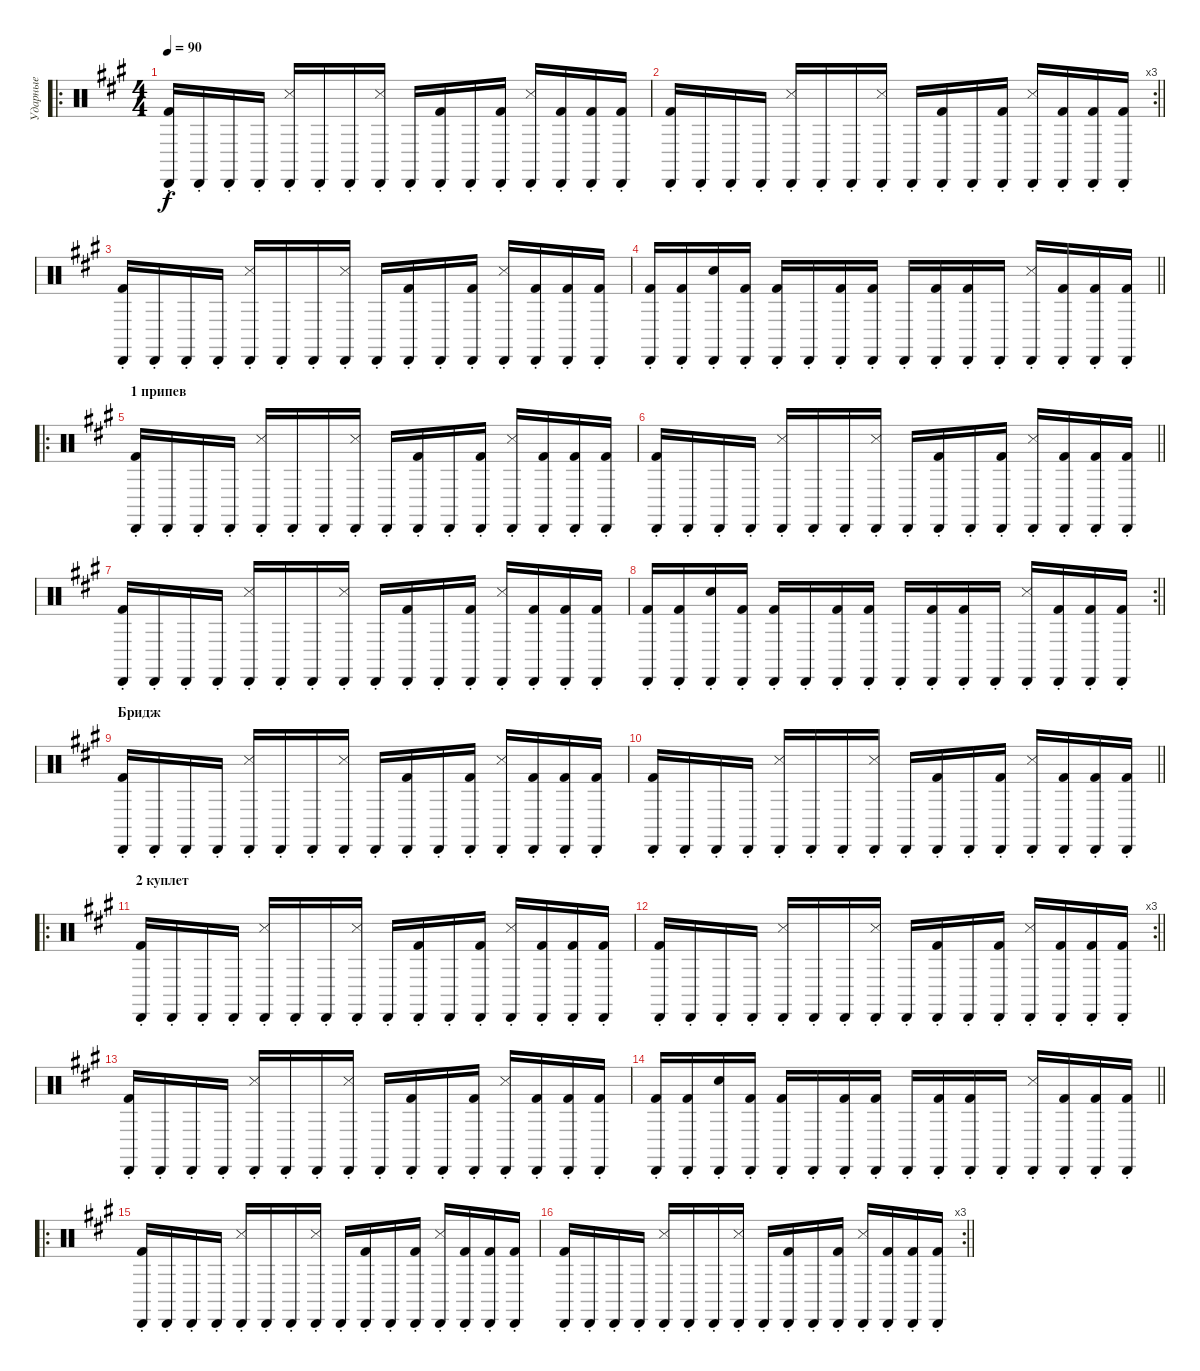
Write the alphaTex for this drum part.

\track ("Ударные" "Ударные") {instrument percussion}
\staff {score}
\articulation defaults
\ro
\ts (4 4)
\tempo 90
\clef neutral
\ks f#minor
("Cabasa (hit)"{st} "Kick (hit) 2").16{dy f} "Cabasa (hit)"{st}.16 "Cabasa (hit)"{st}.16 "Cabasa (hit)"{st}.16 ("Cabasa (hit)"{st} "Snare (side stick) 3").16 "Cabasa (hit)"{st}.16 "Cabasa (hit)"{st}.16 ("Cabasa (hit)"{st} "Snare (side stick) 3").16 "Cabasa (hit)"{st}.16 ("Cabasa (hit)"{st} "Kick (hit) 2").16 "Cabasa (hit)"{st}.16 ("Cabasa (hit)"{st} "Kick (hit) 2").16 ("Cabasa (hit)"{st} "Snare (side stick) 3").16 ("Cabasa (hit)"{st} "Kick (hit) 2").16 ("Cabasa (hit)"{st} "Kick (hit) 2").16 ("Cabasa (hit)"{st} "Kick (hit) 2").16 |
\rc 3
\barLineRight lightlight
("Cabasa (hit)"{st} "Kick (hit) 2").16 "Cabasa (hit)"{st}.16 "Cabasa (hit)"{st}.16 "Cabasa (hit)"{st}.16 ("Cabasa (hit)"{st} "Snare (side stick) 3").16 "Cabasa (hit)"{st}.16 "Cabasa (hit)"{st}.16 ("Cabasa (hit)"{st} "Snare (side stick) 3").16 "Cabasa (hit)"{st}.16 ("Cabasa (hit)"{st} "Kick (hit) 2").16 "Cabasa (hit)"{st}.16 ("Cabasa (hit)"{st} "Kick (hit) 2").16 ("Cabasa (hit)"{st} "Snare (side stick) 3").16 ("Cabasa (hit)"{st} "Kick (hit) 2").16 ("Cabasa (hit)"{st} "Kick (hit) 2").16 ("Cabasa (hit)"{st} "Kick (hit) 2").16 |
("Cabasa (hit)"{st} "Kick (hit) 2").16 "Cabasa (hit)"{st}.16 "Cabasa (hit)"{st}.16 "Cabasa (hit)"{st}.16 ("Cabasa (hit)"{st} "Snare (side stick) 3").16 "Cabasa (hit)"{st}.16 "Cabasa (hit)"{st}.16 ("Cabasa (hit)"{st} "Snare (side stick) 3").16 "Cabasa (hit)"{st}.16 ("Cabasa (hit)"{st} "Kick (hit) 2").16 "Cabasa (hit)"{st}.16 ("Cabasa (hit)"{st} "Kick (hit) 2").16 ("Cabasa (hit)"{st} "Snare (side stick) 3").16 ("Cabasa (hit)"{st} "Kick (hit) 2").16 ("Cabasa (hit)"{st} "Kick (hit) 2").16 ("Cabasa (hit)"{st} "Kick (hit) 2").16 |
\barLineRight lightlight
("Cabasa (hit)"{st} "Kick (hit) 2").16 ("Cabasa (hit)"{st} "Kick (hit) 2").16 ("Cabasa (hit)"{st} "Snare (hit) 2").16 ("Cabasa (hit)"{st} "Kick (hit) 2").16 ("Cabasa (hit)"{st} "Kick (hit) 2").16 "Cabasa (hit)"{st}.16 ("Cabasa (hit)"{st} "Kick (hit) 2").16 ("Cabasa (hit)"{st} "Kick (hit) 2").16 "Cabasa (hit)"{st}.16 ("Cabasa (hit)"{st} "Kick (hit) 2").16 ("Cabasa (hit)"{st} "Kick (hit) 2").16 "Cabasa (hit)"{st}.16 ("Cabasa (hit)"{st} "Snare (side stick) 3").16 ("Cabasa (hit)"{st} "Kick (hit) 2").16 ("Cabasa (hit)"{st} "Kick (hit) 2").16 ("Cabasa (hit)"{st} "Kick (hit) 2").16 |
\ro
\section ("" "1 припев")
("Cabasa (hit)"{st} "Kick (hit) 2").16 "Cabasa (hit)"{st}.16 "Cabasa (hit)"{st}.16 "Cabasa (hit)"{st}.16 ("Cabasa (hit)"{st} "Snare (side stick) 3").16 "Cabasa (hit)"{st}.16 "Cabasa (hit)"{st}.16 ("Cabasa (hit)"{st} "Snare (side stick) 3").16 "Cabasa (hit)"{st}.16 ("Cabasa (hit)"{st} "Kick (hit) 2").16 "Cabasa (hit)"{st}.16 ("Cabasa (hit)"{st} "Kick (hit) 2").16 ("Cabasa (hit)"{st} "Snare (side stick) 3").16 ("Cabasa (hit)"{st} "Kick (hit) 2").16 ("Cabasa (hit)"{st} "Kick (hit) 2").16 ("Cabasa (hit)"{st} "Kick (hit) 2").16 |
\barLineRight lightlight
("Cabasa (hit)"{st} "Kick (hit) 2").16 "Cabasa (hit)"{st}.16 "Cabasa (hit)"{st}.16 "Cabasa (hit)"{st}.16 ("Cabasa (hit)"{st} "Snare (side stick) 3").16 "Cabasa (hit)"{st}.16 "Cabasa (hit)"{st}.16 ("Cabasa (hit)"{st} "Snare (side stick) 3").16 "Cabasa (hit)"{st}.16 ("Cabasa (hit)"{st} "Kick (hit) 2").16 "Cabasa (hit)"{st}.16 ("Cabasa (hit)"{st} "Kick (hit) 2").16 ("Cabasa (hit)"{st} "Snare (side stick) 3").16 ("Cabasa (hit)"{st} "Kick (hit) 2").16 ("Cabasa (hit)"{st} "Kick (hit) 2").16 ("Cabasa (hit)"{st} "Kick (hit) 2").16 |
("Cabasa (hit)"{st} "Kick (hit) 2").16 "Cabasa (hit)"{st}.16 "Cabasa (hit)"{st}.16 "Cabasa (hit)"{st}.16 ("Cabasa (hit)"{st} "Snare (side stick) 3").16 "Cabasa (hit)"{st}.16 "Cabasa (hit)"{st}.16 ("Cabasa (hit)"{st} "Snare (side stick) 3").16 "Cabasa (hit)"{st}.16 ("Cabasa (hit)"{st} "Kick (hit) 2").16 "Cabasa (hit)"{st}.16 ("Cabasa (hit)"{st} "Kick (hit) 2").16 ("Cabasa (hit)"{st} "Snare (side stick) 3").16 ("Cabasa (hit)"{st} "Kick (hit) 2").16 ("Cabasa (hit)"{st} "Kick (hit) 2").16 ("Cabasa (hit)"{st} "Kick (hit) 2").16 |
\rc 2
\barLineRight lightlight
("Cabasa (hit)"{st} "Kick (hit) 2").16 ("Cabasa (hit)"{st} "Kick (hit) 2").16 ("Cabasa (hit)"{st} "Snare (hit) 2").16 ("Cabasa (hit)"{st} "Kick (hit) 2").16 ("Cabasa (hit)"{st} "Kick (hit) 2").16 "Cabasa (hit)"{st}.16 ("Cabasa (hit)"{st} "Kick (hit) 2").16 ("Cabasa (hit)"{st} "Kick (hit) 2").16 "Cabasa (hit)"{st}.16 ("Cabasa (hit)"{st} "Kick (hit) 2").16 ("Cabasa (hit)"{st} "Kick (hit) 2").16 "Cabasa (hit)"{st}.16 ("Cabasa (hit)"{st} "Snare (side stick) 3").16 ("Cabasa (hit)"{st} "Kick (hit) 2").16 ("Cabasa (hit)"{st} "Kick (hit) 2").16 ("Cabasa (hit)"{st} "Kick (hit) 2").16 |
\section ("" "Бридж")
("Cabasa (hit)"{st} "Kick (hit) 2").16 "Cabasa (hit)"{st}.16 "Cabasa (hit)"{st}.16 "Cabasa (hit)"{st}.16 ("Cabasa (hit)"{st} "Snare (side stick) 3").16 "Cabasa (hit)"{st}.16 "Cabasa (hit)"{st}.16 ("Cabasa (hit)"{st} "Snare (side stick) 3").16 "Cabasa (hit)"{st}.16 ("Cabasa (hit)"{st} "Kick (hit) 2").16 "Cabasa (hit)"{st}.16 ("Cabasa (hit)"{st} "Kick (hit) 2").16 ("Cabasa (hit)"{st} "Snare (side stick) 3").16 ("Cabasa (hit)"{st} "Kick (hit) 2").16 ("Cabasa (hit)"{st} "Kick (hit) 2").16 ("Cabasa (hit)"{st} "Kick (hit) 2").16 |
\barLineRight lightlight
("Cabasa (hit)"{st} "Kick (hit) 2").16 "Cabasa (hit)"{st}.16 "Cabasa (hit)"{st}.16 "Cabasa (hit)"{st}.16 ("Cabasa (hit)"{st} "Snare (side stick) 3").16 "Cabasa (hit)"{st}.16 "Cabasa (hit)"{st}.16 ("Cabasa (hit)"{st} "Snare (side stick) 3").16 "Cabasa (hit)"{st}.16 ("Cabasa (hit)"{st} "Kick (hit) 2").16 "Cabasa (hit)"{st}.16 ("Cabasa (hit)"{st} "Kick (hit) 2").16 ("Cabasa (hit)"{st} "Snare (side stick) 3").16 ("Cabasa (hit)"{st} "Kick (hit) 2").16 ("Cabasa (hit)"{st} "Kick (hit) 2").16 ("Cabasa (hit)"{st} "Kick (hit) 2").16 |
\ro
\section ("" "2 куплет")
("Cabasa (hit)"{st} "Kick (hit) 2").16 "Cabasa (hit)"{st}.16 "Cabasa (hit)"{st}.16 "Cabasa (hit)"{st}.16 ("Cabasa (hit)"{st} "Snare (side stick) 3").16 "Cabasa (hit)"{st}.16 "Cabasa (hit)"{st}.16 ("Cabasa (hit)"{st} "Snare (side stick) 3").16 "Cabasa (hit)"{st}.16 ("Cabasa (hit)"{st} "Kick (hit) 2").16 "Cabasa (hit)"{st}.16 ("Cabasa (hit)"{st} "Kick (hit) 2").16 ("Cabasa (hit)"{st} "Snare (side stick) 3").16 ("Cabasa (hit)"{st} "Kick (hit) 2").16 ("Cabasa (hit)"{st} "Kick (hit) 2").16 ("Cabasa (hit)"{st} "Kick (hit) 2").16 |
\rc 3
\barLineRight lightlight
("Cabasa (hit)"{st} "Kick (hit) 2").16 "Cabasa (hit)"{st}.16 "Cabasa (hit)"{st}.16 "Cabasa (hit)"{st}.16 ("Cabasa (hit)"{st} "Snare (side stick) 3").16 "Cabasa (hit)"{st}.16 "Cabasa (hit)"{st}.16 ("Cabasa (hit)"{st} "Snare (side stick) 3").16 "Cabasa (hit)"{st}.16 ("Cabasa (hit)"{st} "Kick (hit) 2").16 "Cabasa (hit)"{st}.16 ("Cabasa (hit)"{st} "Kick (hit) 2").16 ("Cabasa (hit)"{st} "Snare (side stick) 3").16 ("Cabasa (hit)"{st} "Kick (hit) 2").16 ("Cabasa (hit)"{st} "Kick (hit) 2").16 ("Cabasa (hit)"{st} "Kick (hit) 2").16 |
("Cabasa (hit)"{st} "Kick (hit) 2").16 "Cabasa (hit)"{st}.16 "Cabasa (hit)"{st}.16 "Cabasa (hit)"{st}.16 ("Cabasa (hit)"{st} "Snare (side stick) 3").16 "Cabasa (hit)"{st}.16 "Cabasa (hit)"{st}.16 ("Cabasa (hit)"{st} "Snare (side stick) 3").16 "Cabasa (hit)"{st}.16 ("Cabasa (hit)"{st} "Kick (hit) 2").16 "Cabasa (hit)"{st}.16 ("Cabasa (hit)"{st} "Kick (hit) 2").16 ("Cabasa (hit)"{st} "Snare (side stick) 3").16 ("Cabasa (hit)"{st} "Kick (hit) 2").16 ("Cabasa (hit)"{st} "Kick (hit) 2").16 ("Cabasa (hit)"{st} "Kick (hit) 2").16 |
\barLineRight lightlight
("Cabasa (hit)"{st} "Kick (hit) 2").16 ("Cabasa (hit)"{st} "Kick (hit) 2").16 ("Cabasa (hit)"{st} "Snare (hit) 2").16 ("Cabasa (hit)"{st} "Kick (hit) 2").16 ("Cabasa (hit)"{st} "Kick (hit) 2").16 "Cabasa (hit)"{st}.16 ("Cabasa (hit)"{st} "Kick (hit) 2").16 ("Cabasa (hit)"{st} "Kick (hit) 2").16 "Cabasa (hit)"{st}.16 ("Cabasa (hit)"{st} "Kick (hit) 2").16 ("Cabasa (hit)"{st} "Kick (hit) 2").16 "Cabasa (hit)"{st}.16 ("Cabasa (hit)"{st} "Snare (side stick) 3").16 ("Cabasa (hit)"{st} "Kick (hit) 2").16 ("Cabasa (hit)"{st} "Kick (hit) 2").16 ("Cabasa (hit)"{st} "Kick (hit) 2").16 |
\ro
("Cabasa (hit)"{st} "Kick (hit) 2").16 "Cabasa (hit)"{st}.16 "Cabasa (hit)"{st}.16 "Cabasa (hit)"{st}.16 ("Cabasa (hit)"{st} "Snare (side stick) 3").16 "Cabasa (hit)"{st}.16 "Cabasa (hit)"{st}.16 ("Cabasa (hit)"{st} "Snare (side stick) 3").16 "Cabasa (hit)"{st}.16 ("Cabasa (hit)"{st} "Kick (hit) 2").16 "Cabasa (hit)"{st}.16 ("Cabasa (hit)"{st} "Kick (hit) 2").16 ("Cabasa (hit)"{st} "Snare (side stick) 3").16 ("Cabasa (hit)"{st} "Kick (hit) 2").16 ("Cabasa (hit)"{st} "Kick (hit) 2").16 ("Cabasa (hit)"{st} "Kick (hit) 2").16 |
\rc 3
\barLineRight lightlight
("Cabasa (hit)"{st} "Kick (hit) 2").16 "Cabasa (hit)"{st}.16 "Cabasa (hit)"{st}.16 "Cabasa (hit)"{st}.16 ("Cabasa (hit)"{st} "Snare (side stick) 3").16 "Cabasa (hit)"{st}.16 "Cabasa (hit)"{st}.16 ("Cabasa (hit)"{st} "Snare (side stick) 3").16 "Cabasa (hit)"{st}.16 ("Cabasa (hit)"{st} "Kick (hit) 2").16 "Cabasa (hit)"{st}.16 ("Cabasa (hit)"{st} "Kick (hit) 2").16 ("Cabasa (hit)"{st} "Snare (side stick) 3").16 ("Cabasa (hit)"{st} "Kick (hit) 2").16 ("Cabasa (hit)"{st} "Kick (hit) 2").16 ("Cabasa (hit)"{st} "Kick (hit) 2").16
